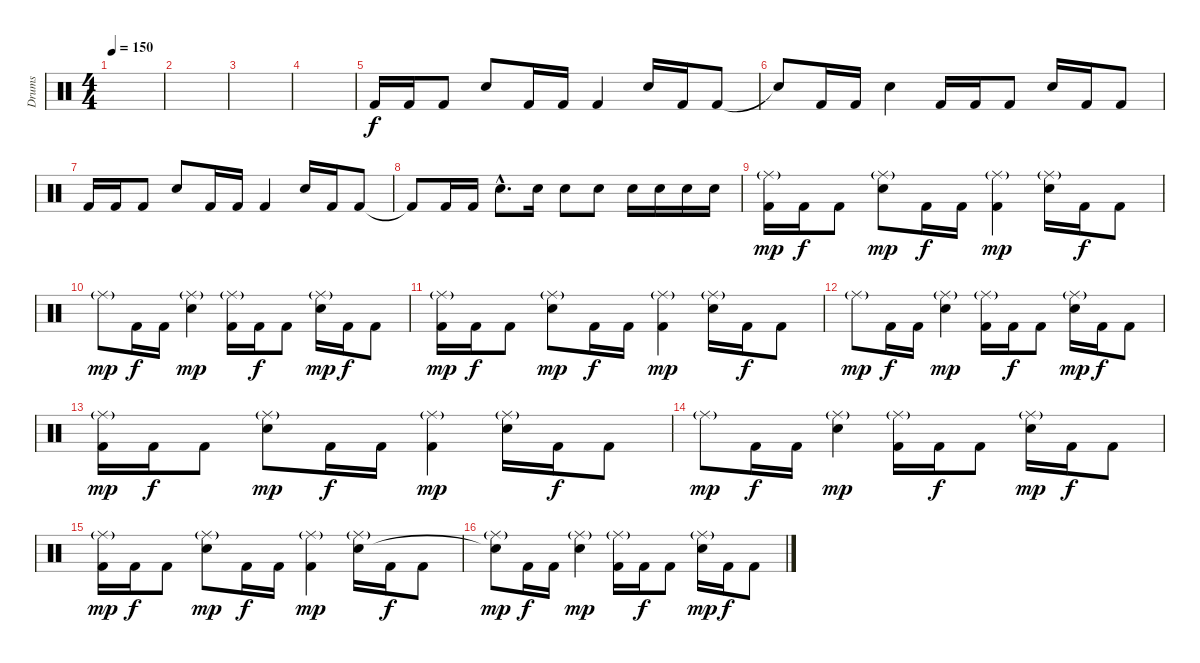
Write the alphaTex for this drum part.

\track ("Drums" "Drums") {instrument percussion}
\staff {score}
\articulation defaults
\ts (4 4)
\tempo 150
\clef neutral
\ks c
|
|
|
|
"Kick (hit) 2".16 "Kick (hit) 2".16 "Kick (hit) 2".8 "Electric Snare (hit)".8 "Kick (hit) 2".16 "Kick (hit) 2".16 "Kick (hit) 2".4 "Electric Snare (hit)".16 "Kick (hit) 2".16 "Kick (hit) 2".8 |
"Snare (hit)"{t}.8 "Kick (hit) 2".16 "Kick (hit) 2".16 "Electric Snare (hit)".4 "Kick (hit) 2".16 "Kick (hit) 2".16 "Kick (hit) 2".8 "Electric Snare (hit)".16 "Kick (hit) 2".16 "Kick (hit) 2".8 |
"Kick (hit) 2".16 "Kick (hit) 2".16 "Kick (hit) 2".8 "Electric Snare (hit)".8 "Kick (hit) 2".16 "Kick (hit) 2".16 "Kick (hit) 2".4 "Electric Snare (hit)".16 "Kick (hit) 2".16 "Kick (hit) 2".8 |
"Kick (hit) 2"{t}.8 "Kick (hit) 2".16 "Kick (hit) 2".16 "Electric Snare (hit)"{hac}.8{d} "Electric Snare (hit)".16 "Electric Snare (hit)".8 "Electric Snare (hit)".8 "Electric Snare (hit)".16 "Electric Snare (hit)".16 "Electric Snare (hit)".16 "Electric Snare (hit)".16 |
("Ride (middle)"{g} "Kick (hit) 2").16{dy mp} "Kick (hit) 2".16{dy f} "Kick (hit) 2".8 ("Ride (middle)"{g} "Electric Snare (hit)").8{dy mp} "Kick (hit) 2".16{dy f} "Kick (hit) 2".16 ("Ride (middle)"{g} "Kick (hit) 2").4{dy mp} ("Ride (middle)"{g} "Electric Snare (hit)").16 "Kick (hit) 2".16{dy f} "Kick (hit) 2".8 |
"Ride (middle)"{g}.8{dy mp} "Kick (hit) 2".16{dy f} "Kick (hit) 2".16 ("Ride (middle)"{g} "Electric Snare (hit)").4{dy mp} ("Ride (middle)"{g} "Kick (hit) 2").16 "Kick (hit) 2".16{dy f} "Kick (hit) 2".8 ("Ride (middle)"{g} "Electric Snare (hit)").16{dy mp} "Kick (hit) 2".16{dy f} "Kick (hit) 2".8 |
("Ride (middle)"{g} "Kick (hit) 2").16{dy mp} "Kick (hit) 2".16{dy f} "Kick (hit) 2".8 ("Ride (middle)"{g} "Electric Snare (hit)").8{dy mp} "Kick (hit) 2".16{dy f} "Kick (hit) 2".16 ("Ride (middle)"{g} "Kick (hit) 2").4{dy mp} ("Ride (middle)"{g} "Electric Snare (hit)").16 "Kick (hit) 2".16{dy f} "Kick (hit) 2".8 |
"Ride (middle)"{g}.8{dy mp} "Kick (hit) 2".16{dy f} "Kick (hit) 2".16 ("Ride (middle)"{g} "Electric Snare (hit)").4{dy mp} ("Ride (middle)"{g} "Kick (hit) 2").16 "Kick (hit) 2".16{dy f} "Kick (hit) 2".8 ("Ride (middle)"{g} "Electric Snare (hit)").16{dy mp} "Kick (hit) 2".16{dy f} "Kick (hit) 2".8 |
("Ride (middle)"{g} "Kick (hit) 2").16{dy mp} "Kick (hit) 2".16{dy f} "Kick (hit) 2".8 ("Ride (middle)"{g} "Electric Snare (hit)").8{dy mp} "Kick (hit) 2".16{dy f} "Kick (hit) 2".16 ("Ride (middle)"{g} "Kick (hit) 2").4{dy mp} ("Ride (middle)"{g} "Electric Snare (hit)").16 "Kick (hit) 2".16{dy f} "Kick (hit) 2".8 |
"Ride (middle)"{g}.8{dy mp} "Kick (hit) 2".16{dy f} "Kick (hit) 2".16 ("Ride (middle)"{g} "Electric Snare (hit)").4{dy mp} ("Ride (middle)"{g} "Kick (hit) 2").16 "Kick (hit) 2".16{dy f} "Kick (hit) 2".8 ("Ride (middle)"{g} "Electric Snare (hit)").16{dy mp} "Kick (hit) 2".16{dy f} "Kick (hit) 2".8 |
("Ride (middle)"{g} "Kick (hit) 2").16{dy mp} "Kick (hit) 2".16{dy f} "Kick (hit) 2".8 ("Ride (middle)"{g} "Electric Snare (hit)").8{dy mp} "Kick (hit) 2".16{dy f} "Kick (hit) 2".16 ("Ride (middle)"{g} "Kick (hit) 2").4{dy mp} ("Ride (middle)"{g} "Electric Snare (hit)").16 "Kick (hit) 2".16{dy f} "Kick (hit) 2".8 |
("Ride (middle)"{g} "Snare (hit)"{t}).8{dy mp} "Kick (hit) 2".16{dy f} "Kick (hit) 2".16 ("Ride (middle)"{g} "Electric Snare (hit)").4{dy mp} ("Ride (middle)"{g} "Kick (hit) 2").16 "Kick (hit) 2".16{dy f} "Kick (hit) 2".8 ("Ride (middle)"{g} "Electric Snare (hit)").16{dy mp} "Kick (hit) 2".16{dy f} "Kick (hit) 2".8
